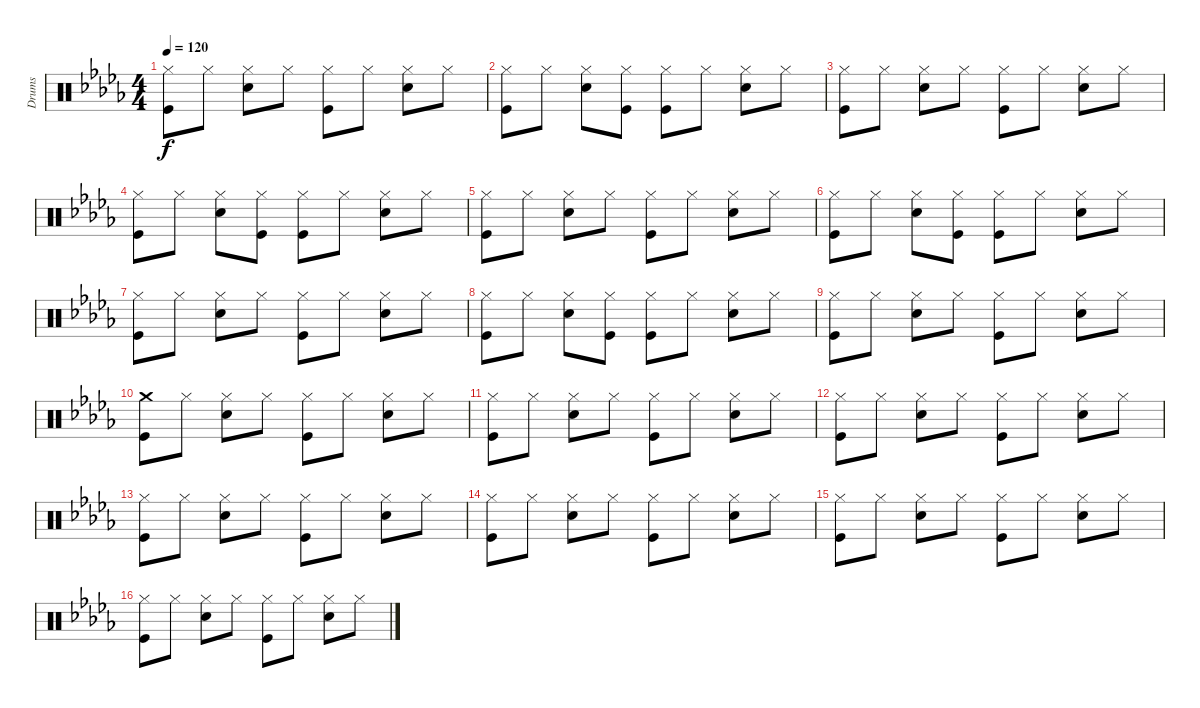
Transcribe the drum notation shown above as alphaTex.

\track ("Drums" "Drums") {instrument percussion}
\staff {score}
\articulation defaults
\ts (4 4)
\tempo 120
\clef neutral
\ks db
("Hi-Hat (closed)" "Kick (hit)").8{dy f} "Hi-Hat (closed)".8 ("Hi-Hat (closed)" "Snare (hit) 2").8 "Hi-Hat (closed)".8 ("Hi-Hat (closed)" "Kick (hit)").8 "Hi-Hat (closed)".8 ("Hi-Hat (closed)" "Snare (hit) 2").8 "Hi-Hat (closed)".8 |
("Hi-Hat (closed)" "Kick (hit)").8 "Hi-Hat (closed)".8 ("Hi-Hat (closed)" "Snare (hit) 2").8 ("Hi-Hat (closed)" "Kick (hit)").8 ("Hi-Hat (closed)" "Kick (hit)").8 "Hi-Hat (closed)".8 ("Hi-Hat (closed)" "Snare (hit) 2").8 "Hi-Hat (closed)".8 |
("Hi-Hat (closed)" "Kick (hit)").8 "Hi-Hat (closed)".8 ("Hi-Hat (closed)" "Snare (hit) 2").8 "Hi-Hat (closed)".8 ("Hi-Hat (closed)" "Kick (hit)").8 "Hi-Hat (closed)".8 ("Hi-Hat (closed)" "Snare (hit) 2").8 "Hi-Hat (closed)".8 |
("Hi-Hat (closed)" "Kick (hit)").8 "Hi-Hat (closed)".8 ("Hi-Hat (closed)" "Snare (hit) 2").8 ("Hi-Hat (closed)" "Kick (hit)").8 ("Hi-Hat (closed)" "Kick (hit)").8 "Hi-Hat (closed)".8 ("Hi-Hat (closed)" "Snare (hit) 2").8 "Hi-Hat (closed)".8 |
("Hi-Hat (closed)" "Kick (hit)").8 "Hi-Hat (closed)".8 ("Hi-Hat (closed)" "Snare (hit) 2").8 "Hi-Hat (closed)".8 ("Hi-Hat (closed)" "Kick (hit)").8 "Hi-Hat (closed)".8 ("Hi-Hat (closed)" "Snare (hit) 2").8 "Hi-Hat (closed)".8 |
("Hi-Hat (closed)" "Kick (hit)").8 "Hi-Hat (closed)".8 ("Hi-Hat (closed)" "Snare (hit) 2").8 ("Hi-Hat (closed)" "Kick (hit)").8 ("Hi-Hat (closed)" "Kick (hit)").8 "Hi-Hat (closed)".8 ("Hi-Hat (closed)" "Snare (hit) 2").8 "Hi-Hat (closed)".8 |
("Hi-Hat (closed)" "Kick (hit)").8 "Hi-Hat (closed)".8 ("Hi-Hat (closed)" "Snare (hit) 2").8 "Hi-Hat (closed)".8 ("Hi-Hat (closed)" "Kick (hit)").8 "Hi-Hat (closed)".8 ("Hi-Hat (closed)" "Snare (hit) 2").8 "Hi-Hat (closed)".8 |
("Hi-Hat (closed)" "Kick (hit)").8 "Hi-Hat (closed)".8 ("Hi-Hat (closed)" "Snare (hit) 2").8 ("Hi-Hat (closed)" "Kick (hit)").8 ("Hi-Hat (closed)" "Kick (hit)").8 "Hi-Hat (closed)".8 ("Hi-Hat (closed)" "Snare (hit) 2").8 "Hi-Hat (closed)".8 |
("Hi-Hat (closed)" "Kick (hit)").8 "Hi-Hat (closed)".8 ("Hi-Hat (closed)" "Snare (hit) 2").8 "Hi-Hat (closed)".8 ("Hi-Hat (closed)" "Kick (hit)").8 "Hi-Hat (closed)".8 ("Hi-Hat (closed)" "Snare (hit) 2").8 "Hi-Hat (closed)".8 |
("Crash medium (hit)" "Kick (hit)").8 "Hi-Hat (closed)".8 ("Hi-Hat (closed)" "Snare (hit) 2").8 "Hi-Hat (closed)".8 ("Hi-Hat (closed)" "Kick (hit)").8 "Hi-Hat (closed)".8 ("Hi-Hat (closed)" "Snare (hit) 2").8 "Hi-Hat (closed)".8 |
("Hi-Hat (closed)" "Kick (hit)").8 "Hi-Hat (closed)".8 ("Hi-Hat (closed)" "Snare (hit) 2").8 "Hi-Hat (closed)".8 ("Hi-Hat (closed)" "Kick (hit)").8 "Hi-Hat (closed)".8 ("Hi-Hat (closed)" "Snare (hit) 2").8 "Hi-Hat (closed)".8 |
("Hi-Hat (closed)" "Kick (hit)").8 "Hi-Hat (closed)".8 ("Hi-Hat (closed)" "Snare (hit) 2").8 "Hi-Hat (closed)".8 ("Hi-Hat (closed)" "Kick (hit)").8 "Hi-Hat (closed)".8 ("Hi-Hat (closed)" "Snare (hit) 2").8 "Hi-Hat (closed)".8 |
("Hi-Hat (closed)" "Kick (hit)").8 "Hi-Hat (closed)".8 ("Hi-Hat (closed)" "Snare (hit) 2").8 "Hi-Hat (closed)".8 ("Hi-Hat (closed)" "Kick (hit)").8 "Hi-Hat (closed)".8 ("Hi-Hat (closed)" "Snare (hit) 2").8 "Hi-Hat (closed)".8 |
("Hi-Hat (closed)" "Kick (hit)").8 "Hi-Hat (closed)".8 ("Hi-Hat (closed)" "Snare (hit) 2").8 "Hi-Hat (closed)".8 ("Hi-Hat (closed)" "Kick (hit)").8 "Hi-Hat (closed)".8 ("Hi-Hat (closed)" "Snare (hit) 2").8 "Hi-Hat (closed)".8 |
("Hi-Hat (closed)" "Kick (hit)").8 "Hi-Hat (closed)".8 ("Hi-Hat (closed)" "Snare (hit) 2").8 "Hi-Hat (closed)".8 ("Hi-Hat (closed)" "Kick (hit)").8 "Hi-Hat (closed)".8 ("Hi-Hat (closed)" "Snare (hit) 2").8 "Hi-Hat (closed)".8 |
("Hi-Hat (closed)" "Kick (hit)").8 "Hi-Hat (closed)".8 ("Hi-Hat (closed)" "Snare (hit) 2").8 "Hi-Hat (closed)".8 ("Hi-Hat (closed)" "Kick (hit)").8 "Hi-Hat (closed)".8 ("Hi-Hat (closed)" "Snare (hit) 2").8 "Hi-Hat (closed)".8
